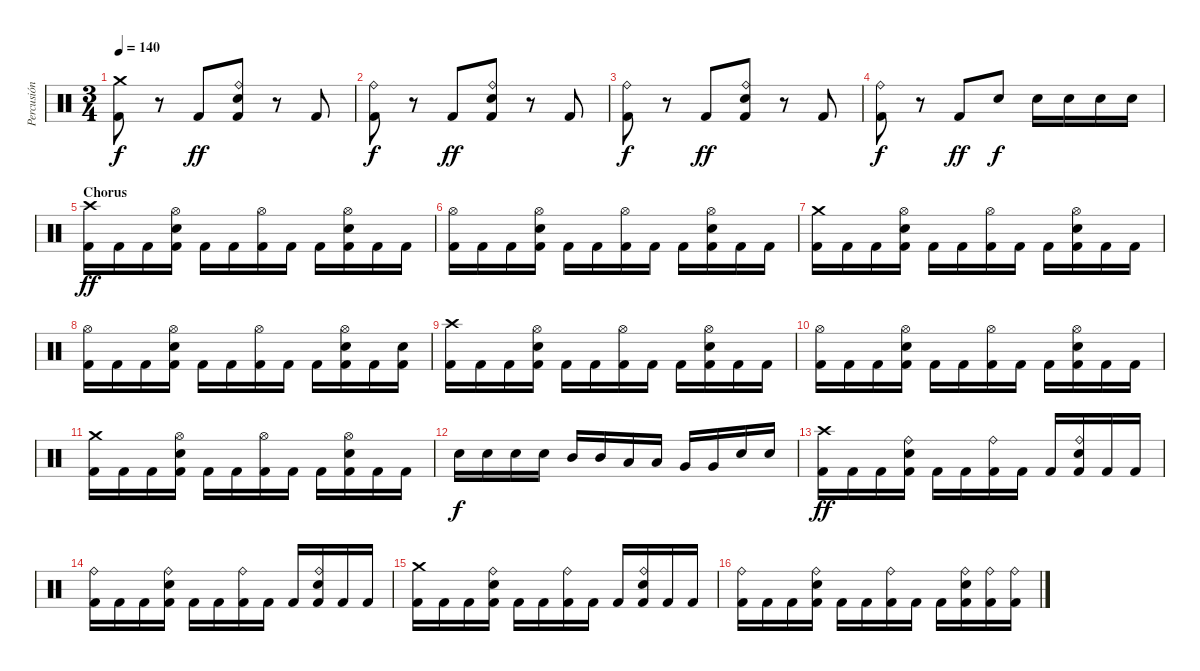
\track ("Percusión" "Percusión") {instrument percussion}
\staff {score}
\articulation defaults
\ts (3 4)
\tempo 140
\clef neutral
\ks c
("Crash medium (hit)" "Kick (hit) 2").8{dy f} r.8 "Kick (hit) 2".8{dy ff} ("Ride (bell)" "Electric Snare (hit)" "Kick (hit) 2").8 r.8 "Kick (hit) 2".8 |
("Ride (bell)" "Kick (hit) 2").8{dy f} r.8 "Kick (hit) 2".8{dy ff} ("Ride (bell)" "Electric Snare (hit)" "Kick (hit) 2").8 r.8 "Kick (hit) 2".8 |
("Ride (bell)" "Kick (hit) 2").8{dy f} r.8 "Kick (hit) 2".8{dy ff} ("Ride (bell)" "Electric Snare (hit)" "Kick (hit) 2").8 r.8 "Kick (hit) 2".8 |
("Ride (bell)" "Kick (hit) 2").8{dy f} r.8 "Kick (hit) 2".8{dy ff} "Electric Snare (hit)".8{dy f} "Electric Snare (hit)".16 "Electric Snare (hit)".16 "Electric Snare (hit)".16 "Electric Snare (hit)".16 |
\section ("" "Chorus")
("Crash high (hit)" "Kick (hit) 2").16{dy ff} "Kick (hit) 2".16 "Kick (hit) 2".16 ("Hi-Hat (open)" "Electric Snare (hit)" "Kick (hit) 2").16 "Kick (hit) 2".16 "Kick (hit) 2".16 ("Hi-Hat (open)" "Kick (hit) 2").16 "Kick (hit) 2".16 "Kick (hit) 2".16 ("Hi-Hat (open)" "Electric Snare (hit)" "Kick (hit) 2").16 "Kick (hit) 2".16 "Kick (hit) 2".16 |
("Hi-Hat (open)" "Kick (hit) 2").16 "Kick (hit) 2".16 "Kick (hit) 2".16 ("Hi-Hat (open)" "Electric Snare (hit)" "Kick (hit) 2").16 "Kick (hit) 2".16 "Kick (hit) 2".16 ("Hi-Hat (open)" "Kick (hit) 2").16 "Kick (hit) 2".16 "Kick (hit) 2".16 ("Hi-Hat (open)" "Electric Snare (hit)" "Kick (hit) 2").16 "Kick (hit) 2".16 "Kick (hit) 2".16 |
("Crash medium (hit)" "Kick (hit) 2").16 "Kick (hit) 2".16 "Kick (hit) 2".16 ("Hi-Hat (open)" "Electric Snare (hit)" "Kick (hit) 2").16 "Kick (hit) 2".16 "Kick (hit) 2".16 ("Hi-Hat (open)" "Kick (hit) 2").16 "Kick (hit) 2".16 "Kick (hit) 2".16 ("Hi-Hat (open)" "Electric Snare (hit)" "Kick (hit) 2").16 "Kick (hit) 2".16 "Kick (hit) 2".16 |
("Hi-Hat (open)" "Kick (hit) 2").16 "Kick (hit) 2".16 "Kick (hit) 2".16 ("Hi-Hat (open)" "Electric Snare (hit)" "Kick (hit) 2").16 "Kick (hit) 2".16 "Kick (hit) 2".16 ("Hi-Hat (open)" "Kick (hit) 2").16 "Kick (hit) 2".16 "Kick (hit) 2".16 ("Hi-Hat (open)" "Electric Snare (hit)" "Kick (hit) 2").16 "Kick (hit) 2".16 ("Electric Snare (hit)" "Kick (hit) 2").16 |
("Crash high (hit)" "Kick (hit) 2").16 "Kick (hit) 2".16 "Kick (hit) 2".16 ("Hi-Hat (open)" "Electric Snare (hit)" "Kick (hit) 2").16 "Kick (hit) 2".16 "Kick (hit) 2".16 ("Hi-Hat (open)" "Kick (hit) 2").16 "Kick (hit) 2".16 "Kick (hit) 2".16 ("Hi-Hat (open)" "Electric Snare (hit)" "Kick (hit) 2").16 "Kick (hit) 2".16 "Kick (hit) 2".16 |
("Hi-Hat (open)" "Kick (hit) 2").16 "Kick (hit) 2".16 "Kick (hit) 2".16 ("Hi-Hat (open)" "Electric Snare (hit)" "Kick (hit) 2").16 "Kick (hit) 2".16 "Kick (hit) 2".16 ("Hi-Hat (open)" "Kick (hit) 2").16 "Kick (hit) 2".16 "Kick (hit) 2".16 ("Hi-Hat (open)" "Electric Snare (hit)" "Kick (hit) 2").16 "Kick (hit) 2".16 "Kick (hit) 2".16 |
("Crash medium (hit)" "Kick (hit) 2").16 "Kick (hit) 2".16 "Kick (hit) 2".16 ("Hi-Hat (open)" "Electric Snare (hit)" "Kick (hit) 2").16 "Kick (hit) 2".16 "Kick (hit) 2".16 ("Hi-Hat (open)" "Kick (hit) 2").16 "Kick (hit) 2".16 "Kick (hit) 2".16 ("Hi-Hat (open)" "Electric Snare (hit)" "Kick (hit) 2").16 "Kick (hit) 2".16 "Kick (hit) 2".16 |
"Electric Snare (hit)".16{dy f} "Electric Snare (hit)".16 "Electric Snare (hit)".16 "Electric Snare (hit)".16 "Mid Tom (hit)".16 "Mid Tom (hit)".16 "Low Tom (hit)".16 "Low Tom (hit)".16 "Very Low Tom (hit)".16 "Very Low Tom (hit)".16 "Electric Snare (hit)".16 "Electric Snare (hit)".16 |
("Crash high (hit)" "Kick (hit) 2").16{dy ff} "Kick (hit) 2".16 "Kick (hit) 2".16 ("Ride (bell)" "Electric Snare (hit)" "Kick (hit) 2").16 "Kick (hit) 2".16 "Kick (hit) 2".16 ("Ride (bell)" "Kick (hit) 2").16 "Kick (hit) 2".16 "Kick (hit) 2".16 ("Ride (bell)" "Electric Snare (hit)" "Kick (hit) 2").16 "Kick (hit) 2".16 "Kick (hit) 2".16 |
("Ride (bell)" "Kick (hit) 2").16 "Kick (hit) 2".16 "Kick (hit) 2".16 ("Ride (bell)" "Electric Snare (hit)" "Kick (hit) 2").16 "Kick (hit) 2".16 "Kick (hit) 2".16 ("Ride (bell)" "Kick (hit) 2").16 "Kick (hit) 2".16 "Kick (hit) 2".16 ("Ride (bell)" "Electric Snare (hit)" "Kick (hit) 2").16 "Kick (hit) 2".16 "Kick (hit) 2".16 |
("Crash medium (hit)" "Kick (hit) 2").16 "Kick (hit) 2".16 "Kick (hit) 2".16 ("Ride (bell)" "Electric Snare (hit)" "Kick (hit) 2").16 "Kick (hit) 2".16 "Kick (hit) 2".16 ("Ride (bell)" "Kick (hit) 2").16 "Kick (hit) 2".16 "Kick (hit) 2".16 ("Ride (bell)" "Electric Snare (hit)" "Kick (hit) 2").16 "Kick (hit) 2".16 "Kick (hit) 2".16 |
("Ride (bell)" "Kick (hit) 2").16 "Kick (hit) 2".16 "Kick (hit) 2".16 ("Ride (bell)" "Electric Snare (hit)" "Kick (hit) 2").16 "Kick (hit) 2".16 "Kick (hit) 2".16 ("Ride (bell)" "Kick (hit) 2").16 "Kick (hit) 2".16 "Kick (hit) 2".16 ("Ride (bell)" "Electric Snare (hit)" "Kick (hit) 2").16 ("Ride (bell)" "Kick (hit) 2").16 ("Ride (bell)" "Kick (hit) 2").16
